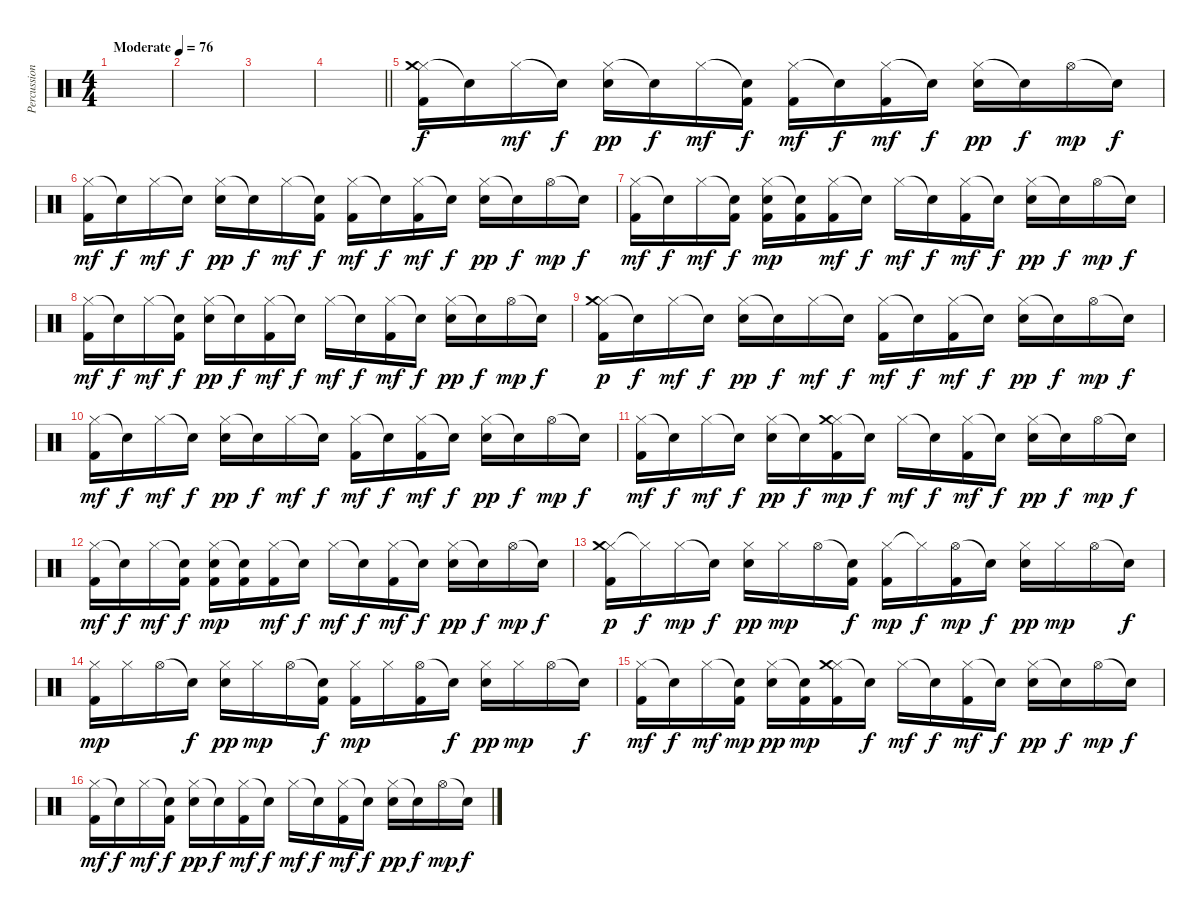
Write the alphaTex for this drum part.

\track ("Percussion" "Percussion") {instrument percussion}
\staff {score}
\articulation defaults
\ts (4 4)
\tempo (76 "Moderate")
\clef neutral
\ks c
|
|
|
\barLineRight lightlight
|
("Hi-Hat (closed)" "Crash medium (hit)" "Kick (hit) 2").16 "Snare (hit)"{t}.16{dy f} "Hi-Hat (closed)".16{dy mf} "Snare (hit)"{t}.16{dy f} ("Hi-Hat (closed)" "Electric Snare (hit)").16{dy pp} "Snare (hit)"{t}.16{dy f} "Hi-Hat (closed)".16{dy mf} ("Snare (hit)"{t} "Kick (hit) 2").16{dy f} ("Hi-Hat (closed)" "Kick (hit) 2").16{dy mf} "Snare (hit)"{t}.16{dy f} ("Hi-Hat (closed)" "Kick (hit) 2").16{dy mf} "Snare (hit)"{t}.16{dy f} ("Hi-Hat (closed)" "Electric Snare (hit)").16{dy pp} "Snare (hit)"{t}.16{dy f} "Hi-Hat (open)".16{dy mp} "Snare (hit)"{t}.16{dy f} |
("Hi-Hat (closed)" "Kick (hit) 2").16{dy mf} "Snare (hit)"{t}.16{dy f} "Hi-Hat (closed)".16{dy mf} "Snare (hit)"{t}.16{dy f} ("Hi-Hat (closed)" "Electric Snare (hit)").16{dy pp} "Snare (hit)"{t}.16{dy f} "Hi-Hat (closed)".16{dy mf} ("Snare (hit)"{t} "Kick (hit) 2").16{dy f} ("Hi-Hat (closed)" "Kick (hit) 2").16{dy mf} "Snare (hit)"{t}.16{dy f} ("Hi-Hat (closed)" "Kick (hit) 2").16{dy mf} "Snare (hit)"{t}.16{dy f} ("Hi-Hat (closed)" "Electric Snare (hit)").16{dy pp} "Snare (hit)"{t}.16{dy f} "Hi-Hat (open)".16{dy mp} "Snare (hit)"{t}.16{dy f} |
("Hi-Hat (closed)" "Kick (hit) 2").16{dy mf} "Snare (hit)"{t}.16{dy f} "Hi-Hat (closed)".16{dy mf} ("Snare (hit)"{t} "Kick (hit) 2").16{dy f} ("Hi-Hat (closed)" "Electric Snare (hit)" "Kick (hit) 2").16{dy mp} ("Snare (hit)"{t} "Kick (hit) 2").16 ("Hi-Hat (closed)" "Kick (hit) 2").16{dy mf} "Snare (hit)"{t}.16{dy f} "Hi-Hat (closed)".16{dy mf} "Snare (hit)"{t}.16{dy f} ("Hi-Hat (closed)" "Kick (hit) 2").16{dy mf} "Snare (hit)"{t}.16{dy f} ("Hi-Hat (closed)" "Electric Snare (hit)").16{dy pp} "Snare (hit)"{t}.16{dy f} "Hi-Hat (open)".16{dy mp} "Snare (hit)"{t}.16{dy f} |
("Hi-Hat (closed)" "Kick (hit) 2").16{dy mf} "Snare (hit)"{t}.16{dy f} "Hi-Hat (closed)".16{dy mf} ("Snare (hit)"{t} "Kick (hit) 2").16{dy f} ("Hi-Hat (closed)" "Electric Snare (hit)").16{dy pp} "Snare (hit)"{t}.16{dy f} ("Hi-Hat (closed)" "Kick (hit) 2").16{dy mf} "Snare (hit)"{t}.16{dy f} "Hi-Hat (closed)".16{dy mf} "Snare (hit)"{t}.16{dy f} ("Hi-Hat (closed)" "Kick (hit) 2").16{dy mf} "Snare (hit)"{t}.16{dy f} ("Hi-Hat (closed)" "Electric Snare (hit)").16{dy pp} "Snare (hit)"{t}.16{dy f} "Hi-Hat (open)".16{dy mp} "Snare (hit)"{t}.16{dy f} |
("Hi-Hat (closed)" "Crash medium (hit)" "Kick (hit) 2").16{dy p} "Snare (hit)"{t}.16{dy f} "Hi-Hat (closed)".16{dy mf} "Snare (hit)"{t}.16{dy f} ("Hi-Hat (closed)" "Electric Snare (hit)").16{dy pp} "Snare (hit)"{t}.16{dy f} "Hi-Hat (closed)".16{dy mf} "Snare (hit)"{t}.16{dy f} ("Hi-Hat (closed)" "Kick (hit) 2").16{dy mf} "Snare (hit)"{t}.16{dy f} ("Hi-Hat (closed)" "Kick (hit) 2").16{dy mf} "Snare (hit)"{t}.16{dy f} ("Hi-Hat (closed)" "Electric Snare (hit)").16{dy pp} "Snare (hit)"{t}.16{dy f} "Hi-Hat (open)".16{dy mp} "Snare (hit)"{t}.16{dy f} |
("Hi-Hat (closed)" "Kick (hit) 2").16{dy mf} "Snare (hit)"{t}.16{dy f} "Hi-Hat (closed)".16{dy mf} "Snare (hit)"{t}.16{dy f} ("Hi-Hat (closed)" "Electric Snare (hit)").16{dy pp} "Snare (hit)"{t}.16{dy f} "Hi-Hat (closed)".16{dy mf} "Snare (hit)"{t}.16{dy f} ("Hi-Hat (closed)" "Kick (hit) 2").16{dy mf} "Snare (hit)"{t}.16{dy f} ("Hi-Hat (closed)" "Kick (hit) 2").16{dy mf} "Snare (hit)"{t}.16{dy f} ("Hi-Hat (closed)" "Electric Snare (hit)").16{dy pp} "Snare (hit)"{t}.16{dy f} "Hi-Hat (open)".16{dy mp} "Snare (hit)"{t}.16{dy f} |
("Hi-Hat (closed)" "Kick (hit) 2").16{dy mf} "Snare (hit)"{t}.16{dy f} "Hi-Hat (closed)".16{dy mf} "Snare (hit)"{t}.16{dy f} ("Hi-Hat (closed)" "Electric Snare (hit)").16{dy pp} "Snare (hit)"{t}.16{dy f} ("Hi-Hat (closed)" "Crash medium (hit)" "Kick (hit) 2").16{dy mp} "Snare (hit)"{t}.16{dy f} "Hi-Hat (closed)".16{dy mf} "Snare (hit)"{t}.16{dy f} ("Hi-Hat (closed)" "Kick (hit) 2").16{dy mf} "Snare (hit)"{t}.16{dy f} ("Hi-Hat (closed)" "Electric Snare (hit)").16{dy pp} "Snare (hit)"{t}.16{dy f} "Hi-Hat (open)".16{dy mp} "Snare (hit)"{t}.16{dy f} |
("Hi-Hat (closed)" "Kick (hit) 2").16{dy mf} "Snare (hit)"{t}.16{dy f} "Hi-Hat (closed)".16{dy mf} ("Snare (hit)"{t} "Kick (hit) 2").16{dy f} ("Hi-Hat (closed)" "Electric Snare (hit)" "Kick (hit) 2").16{dy mp} ("Snare (hit)"{t} "Kick (hit) 2").16 ("Hi-Hat (closed)" "Kick (hit) 2").16{dy mf} "Snare (hit)"{t}.16{dy f} "Hi-Hat (closed)".16{dy mf} "Snare (hit)"{t}.16{dy f} ("Hi-Hat (closed)" "Kick (hit) 2").16{dy mf} "Snare (hit)"{t}.16{dy f} ("Hi-Hat (closed)" "Electric Snare (hit)").16{dy pp} "Snare (hit)"{t}.16{dy f} "Hi-Hat (open)".16{dy mp} "Snare (hit)"{t}.16{dy f} |
("Hi-Hat (closed)" "Crash medium (hit)" "Kick (hit) 2").16{dy p} "Hi-Hat (closed)"{t}.16{dy f} "Hi-Hat (closed)".16{dy mp} "Snare (hit)"{t}.16{dy f} ("Hi-Hat (closed)" "Electric Snare (hit)").16{dy pp} "Hi-Hat (closed)".16{dy mp} "Hi-Hat (open)".16 ("Snare (hit)"{t} "Kick (hit) 2").16{dy f} ("Hi-Hat (closed)" "Kick (hit) 2").16{dy mp} "Hi-Hat (closed)"{t}.16{dy f} ("Hi-Hat (open)" "Kick (hit) 2").16{dy mp} "Snare (hit)"{t}.16{dy f} ("Hi-Hat (closed)" "Electric Snare (hit)").16{dy pp} "Hi-Hat (closed)".16{dy mp} "Hi-Hat (open)".16 "Snare (hit)"{t}.16{dy f} |
("Hi-Hat (closed)" "Kick (hit) 2").16{dy mp} "Hi-Hat (closed)".16 "Hi-Hat (open)".16 "Snare (hit)"{t}.16{dy f} ("Hi-Hat (closed)" "Electric Snare (hit)").16{dy pp} "Hi-Hat (closed)".16{dy mp} "Hi-Hat (open)".16 ("Snare (hit)"{t} "Kick (hit) 2").16{dy f} ("Hi-Hat (closed)" "Kick (hit) 2").16{dy mp} "Hi-Hat (closed)".16 ("Hi-Hat (open)" "Kick (hit) 2").16 "Snare (hit)"{t}.16{dy f} ("Hi-Hat (closed)" "Electric Snare (hit)").16{dy pp} "Hi-Hat (closed)".16{dy mp} "Hi-Hat (open)".16 "Snare (hit)"{t}.16{dy f} |
("Hi-Hat (closed)" "Kick (hit) 2").16{dy mf} "Snare (hit)"{t}.16{dy f} "Hi-Hat (closed)".16{dy mf} ("Snare (hit)"{t} "Kick (hit) 2").16{dy mp} ("Hi-Hat (closed)" "Electric Snare (hit)").16{dy pp} ("Snare (hit)"{t} "Kick (hit) 2").16{dy mp} ("Hi-Hat (closed)" "Crash medium (hit)" "Kick (hit) 2").16 "Snare (hit)"{t}.16{dy f} "Hi-Hat (closed)".16{dy mf} "Snare (hit)"{t}.16{dy f} ("Hi-Hat (closed)" "Kick (hit) 2").16{dy mf} "Snare (hit)"{t}.16{dy f} ("Hi-Hat (closed)" "Electric Snare (hit)").16{dy pp} "Snare (hit)"{t}.16{dy f} "Hi-Hat (open)".16{dy mp} "Snare (hit)"{t}.16{dy f} |
("Hi-Hat (closed)" "Kick (hit) 2").16{dy mf} "Snare (hit)"{t}.16{dy f} "Hi-Hat (closed)".16{dy mf} ("Snare (hit)"{t} "Kick (hit) 2").16{dy f} ("Hi-Hat (closed)" "Electric Snare (hit)").16{dy pp} "Snare (hit)"{t}.16{dy f} ("Hi-Hat (closed)" "Kick (hit) 2").16{dy mf} "Snare (hit)"{t}.16{dy f} "Hi-Hat (closed)".16{dy mf} "Snare (hit)"{t}.16{dy f} ("Hi-Hat (closed)" "Kick (hit) 2").16{dy mf} "Snare (hit)"{t}.16{dy f} ("Hi-Hat (closed)" "Electric Snare (hit)").16{dy pp} "Snare (hit)"{t}.16{dy f} "Hi-Hat (open)".16{dy mp} "Snare (hit)"{t}.16{dy f}
